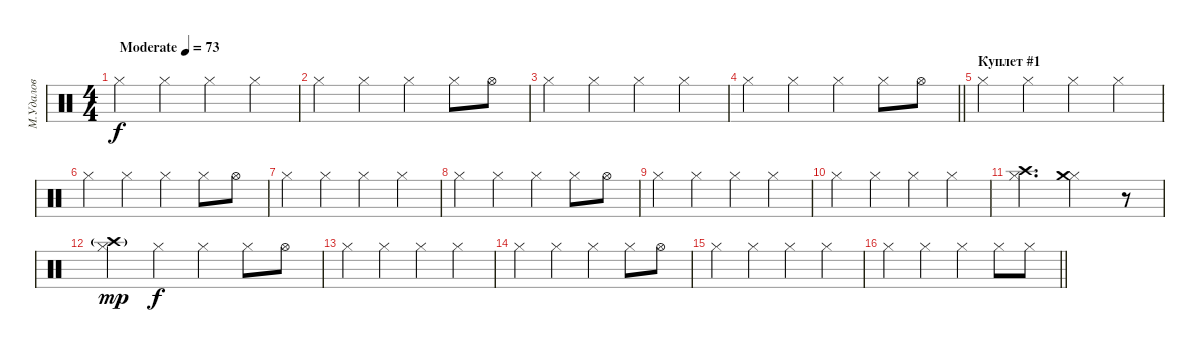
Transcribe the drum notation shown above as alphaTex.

\track ("М.Удалов" "М.Удалов") {instrument percussion}
\staff {score}
\articulation defaults
\ts (4 4)
\tempo (73 "Moderate")
\clef neutral
\ks c "Hi-Hat (closed)".4{dy f} "Hi-Hat (closed)".4 "Hi-Hat (closed)".4 "Hi-Hat (closed)".4
|
"Hi-Hat (closed)".4 "Hi-Hat (closed)".4 "Hi-Hat (closed)".4 "Hi-Hat (closed)".8 "Hi-Hat (open)".8 |
"Hi-Hat (closed)".4 "Hi-Hat (closed)".4 "Hi-Hat (closed)".4 "Hi-Hat (closed)".4 |
\barLineRight lightlight "Hi-Hat (closed)".4 "Hi-Hat (closed)".4 "Hi-Hat (closed)".4 "Hi-Hat (closed)".8 "Hi-Hat (open)".8
|
\section ("" "Куплет #1")
"Hi-Hat (closed)".4 "Hi-Hat (closed)".4 "Hi-Hat (closed)".4 "Hi-Hat (closed)".4 |
"Hi-Hat (closed)".4 "Hi-Hat (closed)".4 "Hi-Hat (closed)".4 "Hi-Hat (closed)".8 "Hi-Hat (open)".8 |
"Hi-Hat (closed)".4 "Hi-Hat (closed)".4 "Hi-Hat (closed)".4 "Hi-Hat (closed)".4 |
"Hi-Hat (closed)".4 "Hi-Hat (closed)".4 "Hi-Hat (closed)".4 "Hi-Hat (closed)".8 "Hi-Hat (open)".8 |
"Hi-Hat (closed)".4 "Hi-Hat (closed)".4 "Hi-Hat (closed)".4 "Hi-Hat (closed)".4 |
"Hi-Hat (closed)".4 "Hi-Hat (closed)".4 "Hi-Hat (closed)".4 "Hi-Hat (closed)".4 |
("Hi-Hat (closed)" "Crash high (hit)").4{d} ("Hi-Hat (closed)" "Crash medium (hit)").2 r.8 |
("Hi-Hat (closed)" "Crash high (hit)"{g}).4{dy mp} "Hi-Hat (closed)".4{dy f} "Hi-Hat (closed)".4 "Hi-Hat (closed)".8 "Hi-Hat (open)".8 |
"Hi-Hat (closed)".4 "Hi-Hat (closed)".4 "Hi-Hat (closed)".4 "Hi-Hat (closed)".4 |
"Hi-Hat (closed)".4 "Hi-Hat (closed)".4 "Hi-Hat (closed)".4 "Hi-Hat (closed)".8 "Hi-Hat (open)".8 |
"Hi-Hat (closed)".4 "Hi-Hat (closed)".4 "Hi-Hat (closed)".4 "Hi-Hat (closed)".4 |
\barLineRight lightlight "Hi-Hat (closed)".4 "Hi-Hat (closed)".4 "Hi-Hat (closed)".4 "Hi-Hat (closed)".8 "Hi-Hat (closed)".8
